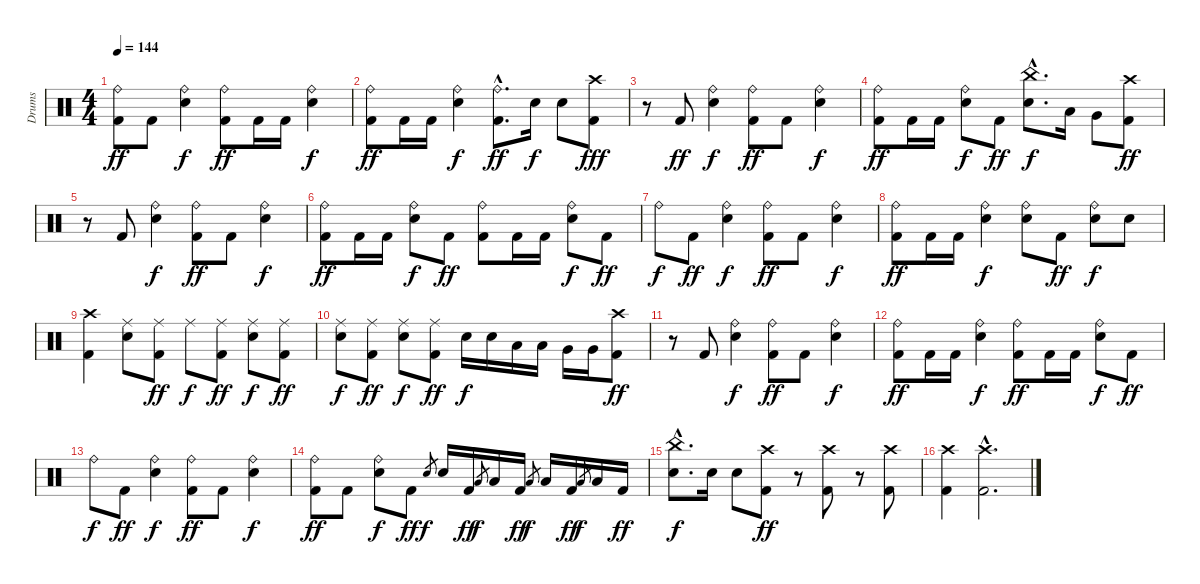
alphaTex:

\track ("Drums" "Drums") {instrument percussion}
\staff {score}
\articulation defaults
\ts (4 4)
\tempo 144
\clef neutral
\ks c
("Ride (bell)" "Kick (hit) 2").8{dy ff} "Kick (hit) 2".8 ("Ride (bell)" "Snare (hit) 2").4{dy f} ("Ride (bell)" "Kick (hit) 2").8{dy ff} "Kick (hit) 2".16 "Kick (hit) 2".16 ("Ride (bell)" "Snare (hit) 2").4{dy f} |
("Ride (bell)" "Kick (hit) 2").8{dy ff} "Kick (hit) 2".16 "Kick (hit) 2".16 ("Ride (bell)" "Snare (hit) 2").4{dy f} ("Ride (bell)"{hac} "Kick (hit) 2"{hac}).8{d dy ff} "Snare (hit) 2".16{dy f} "Snare (hit) 2".8 ("Crash high (hit)" "Kick (hit) 2").8{dy fff} |
r.8 "Kick (hit) 2".8{dy ff} ("Ride (bell)" "Snare (hit) 2").4{dy f} ("Ride (bell)" "Kick (hit) 2").8{dy ff} "Kick (hit) 2".8 ("Ride (bell)" "Snare (hit) 2").4{dy f} |
("Ride (bell)" "Kick (hit) 2").8{dy ff} "Kick (hit) 2".16 "Kick (hit) 2".16 ("Ride (bell)" "Snare (hit) 2").8{dy f} "Kick (hit) 2".8{dy ff} ("China (hit)"{hac} "Snare (hit) 2"{hac}).8{d dy f} "Low Tom (hit)".16 "Very Low Tom (hit)".8 ("Crash high (hit)" "Kick (hit) 2").8{dy ff} |
r.8 "Kick (hit) 2".8 ("Ride (bell)" "Snare (hit) 2").4{dy f} ("Ride (bell)" "Kick (hit) 2").8{dy ff} "Kick (hit) 2".8 ("Ride (bell)" "Snare (hit) 2").4{dy f} |
("Ride (bell)" "Kick (hit) 2").8{dy ff} "Kick (hit) 2".16 "Kick (hit) 2".16 ("Ride (bell)" "Snare (hit) 2").8{dy f} "Kick (hit) 2".8{dy ff} ("Ride (bell)" "Kick (hit) 2").8 "Kick (hit) 2".16 "Kick (hit) 2".16 ("Ride (bell)" "Snare (hit) 2").8{dy f} "Kick (hit) 2".8{dy ff} |
"Ride (bell)".8{dy f} "Kick (hit) 2".8{dy ff} ("Ride (bell)" "Snare (hit) 2").4{dy f} ("Ride (bell)" "Kick (hit) 2").8{dy ff} "Kick (hit) 2".8 ("Ride (bell)" "Snare (hit) 2").4{dy f} |
("Ride (bell)" "Kick (hit) 2").8{dy ff} "Kick (hit) 2".16 "Kick (hit) 2".16 ("Ride (bell)" "Snare (hit) 2").4{dy f} ("Ride (bell)" "Snare (hit) 2").8 "Kick (hit) 2".8{dy ff} ("Ride (bell)" "Snare (hit) 2").8{dy f} "Snare (hit) 2".8 |
("Crash high (hit)" "Kick (hit) 2").4 ("Ride (middle)" "Snare (hit) 2").8 ("Ride (middle)" "Kick (hit) 2").8{dy ff} "Ride (middle)".8{dy f} ("Ride (middle)" "Kick (hit) 2").8{dy ff} ("Ride (middle)" "Snare (hit) 2").8{dy f} ("Ride (middle)" "Kick (hit) 2").8{dy ff} |
("Ride (middle)" "Snare (hit) 2").8{dy f} ("Ride (middle)" "Kick (hit) 2").8{dy ff} ("Ride (middle)" "Snare (hit) 2").8{dy f} ("Ride (middle)" "Kick (hit) 2").8{dy ff} "Snare (hit) 2".16{dy f} "Snare (hit) 2".16 "Low Tom (hit)".16 "Low Tom (hit)".16 "Very Low Tom (hit)".16 "Very Low Tom (hit)".16 ("Crash high (hit)" "Kick (hit) 2").8{dy ff} |
r.8 "Kick (hit) 2".8 ("Ride (bell)" "Snare (hit) 2").4{dy f} ("Ride (bell)" "Kick (hit) 2").8{dy ff} "Kick (hit) 2".8 ("Ride (bell)" "Snare (hit) 2").4{dy f} |
("Ride (bell)" "Kick (hit) 2").8{dy ff} "Kick (hit) 2".16 "Kick (hit) 2".16 ("Ride (bell)" "Snare (hit) 2").4{dy f} ("Ride (bell)" "Kick (hit) 2").8{dy ff} "Kick (hit) 2".16 "Kick (hit) 2".16 ("Ride (bell)" "Snare (hit) 2").8{dy f} "Kick (hit) 2".8{dy ff} |
"Ride (bell)".8{dy f} "Kick (hit) 2".8{dy ff} ("Ride (bell)" "Snare (hit) 2").4{dy f} ("Ride (bell)" "Kick (hit) 2").8{dy ff} "Kick (hit) 2".8 ("Ride (bell)" "Snare (hit) 2").4{dy f} |
("Ride (bell)" "Kick (hit) 2").8{dy ff} "Kick (hit) 2".8 ("Ride (bell)" "Snare (hit) 2").8{dy f} "Kick (hit) 2".8{dy ff} "Snare (hit) 2".8{gr dy f} "Snare (hit) 2".16 "Kick (hit) 2".16{dy ff} "Low Tom (hit)".8{gr dy f} "Low Tom (hit)".16 "Kick (hit) 2".16{dy ff} "Low Tom (hit)".8{gr dy f} "Low Tom (hit)".16 "Kick (hit) 2".16{dy ff} "Low Tom (hit)".8{gr dy f} "Low Tom (hit)".16 "Kick (hit) 2".16{dy ff} |
("China (hit)"{hac} "Snare (hit) 2"{hac}).8{d dy f} "Snare (hit) 2".16 "Snare (hit) 2".8 ("Crash high (hit)" "Kick (hit) 2").8{dy ff} r.8 ("Crash high (hit)" "Kick (hit) 2").8 r.8 ("Crash high (hit)" "Kick (hit) 2").8 |
("Crash high (hit)" "Kick (hit) 2").4 ("Crash high (hit)"{hac} "Kick (hit) 2"{hac}).2{d}
